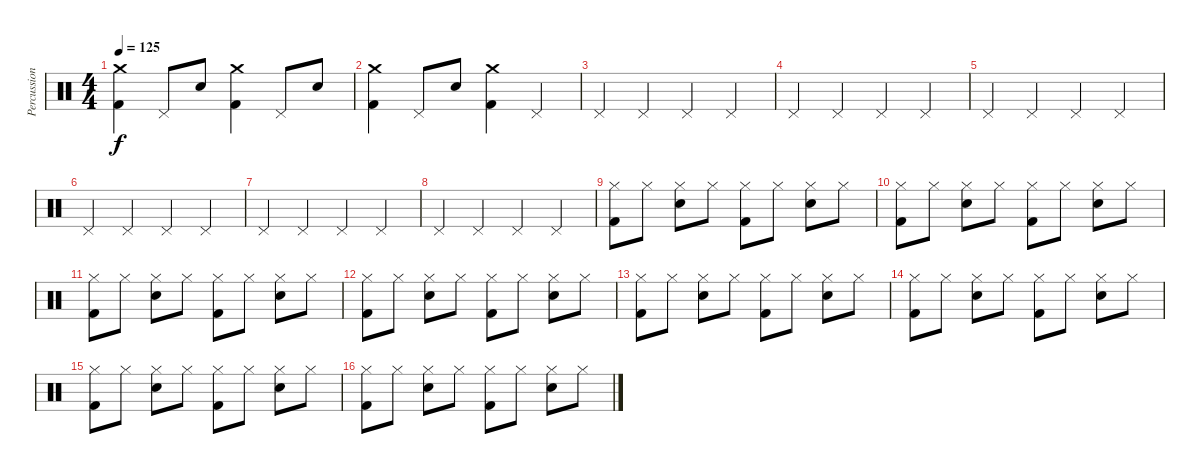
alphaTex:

\track ("Percussions" "Percussion") {instrument percussion}
\staff {score}
\articulation defaults
\ts (4 4)
\tempo 125
\clef neutral
\ks c
("Crash medium (hit)" "Kick (hit) 2").4{dy f} "Pedal Hi-Hat (hit)".8 "Snare (hit) 2".8 ("Crash medium (hit)" "Kick (hit) 2").4 "Pedal Hi-Hat (hit)".8 "Snare (hit) 2".8 |
("Crash medium (hit)" "Kick (hit) 2").4 "Pedal Hi-Hat (hit)".8 "Snare (hit) 2".8 ("Crash medium (hit)" "Kick (hit) 2").4 "Pedal Hi-Hat (hit)".4 |
"Pedal Hi-Hat (hit)".4 "Pedal Hi-Hat (hit)".4 "Pedal Hi-Hat (hit)".4 "Pedal Hi-Hat (hit)".4 |
"Pedal Hi-Hat (hit)".4 "Pedal Hi-Hat (hit)".4 "Pedal Hi-Hat (hit)".4 "Pedal Hi-Hat (hit)".4 |
"Pedal Hi-Hat (hit)".4 "Pedal Hi-Hat (hit)".4 "Pedal Hi-Hat (hit)".4 "Pedal Hi-Hat (hit)".4 |
"Pedal Hi-Hat (hit)".4 "Pedal Hi-Hat (hit)".4 "Pedal Hi-Hat (hit)".4 "Pedal Hi-Hat (hit)".4 |
"Pedal Hi-Hat (hit)".4 "Pedal Hi-Hat (hit)".4 "Pedal Hi-Hat (hit)".4 "Pedal Hi-Hat (hit)".4 |
"Pedal Hi-Hat (hit)".4 "Pedal Hi-Hat (hit)".4 "Pedal Hi-Hat (hit)".4 "Pedal Hi-Hat (hit)".4 |
("Hi-Hat (closed)" "Kick (hit) 2").8 "Hi-Hat (closed)".8 ("Hi-Hat (closed)" "Snare (hit) 2").8 "Hi-Hat (closed)".8 ("Hi-Hat (closed)" "Kick (hit) 2").8 "Hi-Hat (closed)".8 ("Hi-Hat (closed)" "Snare (hit) 2").8 "Hi-Hat (closed)".8 |
("Hi-Hat (closed)" "Kick (hit) 2").8 "Hi-Hat (closed)".8 ("Hi-Hat (closed)" "Snare (hit) 2").8 "Hi-Hat (closed)".8 ("Hi-Hat (closed)" "Kick (hit) 2").8 "Hi-Hat (closed)".8 ("Hi-Hat (closed)" "Snare (hit) 2").8 "Hi-Hat (closed)".8 |
("Hi-Hat (closed)" "Kick (hit) 2").8 "Hi-Hat (closed)".8 ("Hi-Hat (closed)" "Snare (hit) 2").8 "Hi-Hat (closed)".8 ("Hi-Hat (closed)" "Kick (hit) 2").8 "Hi-Hat (closed)".8 ("Hi-Hat (closed)" "Snare (hit) 2").8 "Hi-Hat (closed)".8 |
("Hi-Hat (closed)" "Kick (hit) 2").8 "Hi-Hat (closed)".8 ("Hi-Hat (closed)" "Snare (hit) 2").8 "Hi-Hat (closed)".8 ("Hi-Hat (closed)" "Kick (hit) 2").8 "Hi-Hat (closed)".8 ("Hi-Hat (closed)" "Snare (hit) 2").8 "Hi-Hat (closed)".8 |
("Hi-Hat (closed)" "Kick (hit) 2").8 "Hi-Hat (closed)".8 ("Hi-Hat (closed)" "Snare (hit) 2").8 "Hi-Hat (closed)".8 ("Hi-Hat (closed)" "Kick (hit) 2").8 "Hi-Hat (closed)".8 ("Hi-Hat (closed)" "Snare (hit) 2").8 "Hi-Hat (closed)".8 |
("Hi-Hat (closed)" "Kick (hit) 2").8 "Hi-Hat (closed)".8 ("Hi-Hat (closed)" "Snare (hit) 2").8 "Hi-Hat (closed)".8 ("Hi-Hat (closed)" "Kick (hit) 2").8 "Hi-Hat (closed)".8 ("Hi-Hat (closed)" "Snare (hit) 2").8 "Hi-Hat (closed)".8 |
("Hi-Hat (closed)" "Kick (hit) 2").8 "Hi-Hat (closed)".8 ("Hi-Hat (closed)" "Snare (hit) 2").8 "Hi-Hat (closed)".8 ("Hi-Hat (closed)" "Kick (hit) 2").8 "Hi-Hat (closed)".8 ("Hi-Hat (closed)" "Snare (hit) 2").8 "Hi-Hat (closed)".8 |
("Hi-Hat (closed)" "Kick (hit) 2").8 "Hi-Hat (closed)".8 ("Hi-Hat (closed)" "Snare (hit) 2").8 "Hi-Hat (closed)".8 ("Hi-Hat (closed)" "Kick (hit) 2").8 "Hi-Hat (closed)".8 ("Hi-Hat (closed)" "Snare (hit) 2").8 "Hi-Hat (closed)".8
